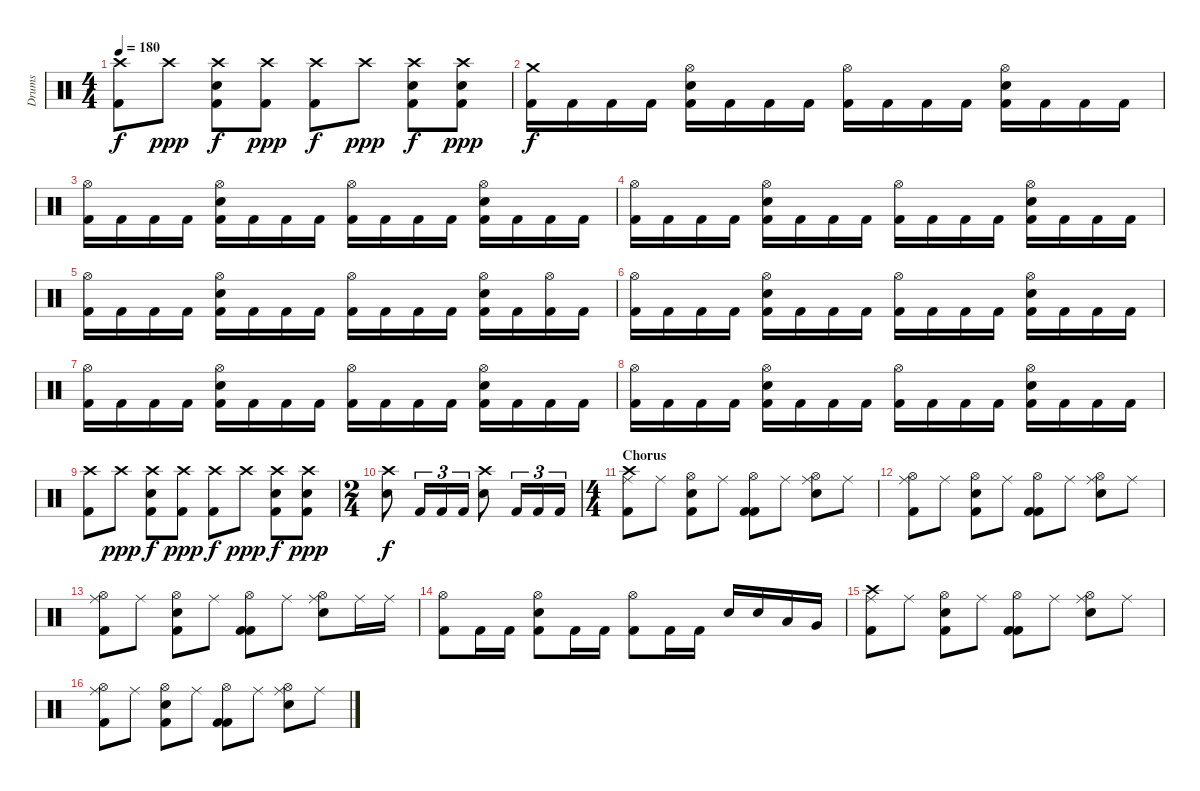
\track ("Drums" "Drums") {instrument percussion}
\staff {score}
\articulation defaults
\ts (4 4)
\tempo 180
\clef neutral
\ks c
("Crash high (hit)" "Kick (hit) 2").8{dy f} "Crash high (hit)".8{dy ppp} ("Crash high (hit)" "Kick (hit) 2" "Electric Snare (hit)").8{dy f} ("Crash high (hit)" "Kick (hit) 2").8{dy ppp} ("Crash high (hit)" "Kick (hit) 2").8{dy f} "Crash high (hit)".8{dy ppp} ("Crash high (hit)" "Kick (hit) 2" "Electric Snare (hit)").8{dy f} ("Crash high (hit)" "Kick (hit) 2" "Electric Snare (hit)").8{dy ppp} |
("Kick (hit) 2" "Crash medium (hit)").16{dy f} "Kick (hit) 2".16 "Kick (hit) 2".16 "Kick (hit) 2".16 ("Kick (hit) 2" "Hi-Hat (open)" "Electric Snare (hit)").16 "Kick (hit) 2".16 "Kick (hit) 2".16 "Kick (hit) 2".16 ("Kick (hit) 2" "Hi-Hat (open)").16 "Kick (hit) 2".16 "Kick (hit) 2".16 "Kick (hit) 2".16 ("Kick (hit) 2" "Hi-Hat (open)" "Electric Snare (hit)").16 "Kick (hit) 2".16 "Kick (hit) 2".16 "Kick (hit) 2".16 |
("Kick (hit) 2" "Hi-Hat (open)").16 "Kick (hit) 2".16 "Kick (hit) 2".16 "Kick (hit) 2".16 ("Kick (hit) 2" "Hi-Hat (open)" "Electric Snare (hit)").16 "Kick (hit) 2".16 "Kick (hit) 2".16 "Kick (hit) 2".16 ("Kick (hit) 2" "Hi-Hat (open)").16 "Kick (hit) 2".16 "Kick (hit) 2".16 "Kick (hit) 2".16 ("Kick (hit) 2" "Hi-Hat (open)" "Electric Snare (hit)").16 "Kick (hit) 2".16 "Kick (hit) 2".16 "Kick (hit) 2".16 |
("Kick (hit) 2" "Hi-Hat (open)").16 "Kick (hit) 2".16 "Kick (hit) 2".16 "Kick (hit) 2".16 ("Kick (hit) 2" "Hi-Hat (open)" "Electric Snare (hit)").16 "Kick (hit) 2".16 "Kick (hit) 2".16 "Kick (hit) 2".16 ("Kick (hit) 2" "Hi-Hat (open)").16 "Kick (hit) 2".16 "Kick (hit) 2".16 "Kick (hit) 2".16 ("Kick (hit) 2" "Hi-Hat (open)" "Electric Snare (hit)").16 "Kick (hit) 2".16 "Kick (hit) 2".16 "Kick (hit) 2".16 |
("Kick (hit) 2" "Hi-Hat (open)").16 "Kick (hit) 2".16 "Kick (hit) 2".16 "Kick (hit) 2".16 ("Kick (hit) 2" "Hi-Hat (open)" "Electric Snare (hit)").16 "Kick (hit) 2".16 "Kick (hit) 2".16 "Kick (hit) 2".16 ("Kick (hit) 2" "Hi-Hat (open)").16 "Kick (hit) 2".16 "Kick (hit) 2".16 "Kick (hit) 2".16 ("Kick (hit) 2" "Hi-Hat (open)" "Electric Snare (hit)").16 "Kick (hit) 2".16 ("Kick (hit) 2" "Hi-Hat (open)").16 "Kick (hit) 2".16 |
("Kick (hit) 2" "Hi-Hat (open)").16 "Kick (hit) 2".16 "Kick (hit) 2".16 "Kick (hit) 2".16 ("Kick (hit) 2" "Hi-Hat (open)" "Electric Snare (hit)").16 "Kick (hit) 2".16 "Kick (hit) 2".16 "Kick (hit) 2".16 ("Kick (hit) 2" "Hi-Hat (open)").16 "Kick (hit) 2".16 "Kick (hit) 2".16 "Kick (hit) 2".16 ("Kick (hit) 2" "Hi-Hat (open)" "Electric Snare (hit)").16 "Kick (hit) 2".16 "Kick (hit) 2".16 "Kick (hit) 2".16 |
("Kick (hit) 2" "Hi-Hat (open)").16 "Kick (hit) 2".16 "Kick (hit) 2".16 "Kick (hit) 2".16 ("Kick (hit) 2" "Hi-Hat (open)" "Electric Snare (hit)").16 "Kick (hit) 2".16 "Kick (hit) 2".16 "Kick (hit) 2".16 ("Kick (hit) 2" "Hi-Hat (open)").16 "Kick (hit) 2".16 "Kick (hit) 2".16 "Kick (hit) 2".16 ("Kick (hit) 2" "Hi-Hat (open)" "Electric Snare (hit)").16 "Kick (hit) 2".16 "Kick (hit) 2".16 "Kick (hit) 2".16 |
("Kick (hit) 2" "Hi-Hat (open)").16 "Kick (hit) 2".16 "Kick (hit) 2".16 "Kick (hit) 2".16 ("Kick (hit) 2" "Hi-Hat (open)" "Electric Snare (hit)").16 "Kick (hit) 2".16 "Kick (hit) 2".16 "Kick (hit) 2".16 ("Kick (hit) 2" "Hi-Hat (open)").16 "Kick (hit) 2".16 "Kick (hit) 2".16 "Kick (hit) 2".16 ("Kick (hit) 2" "Hi-Hat (open)" "Electric Snare (hit)").16 "Kick (hit) 2".16 "Kick (hit) 2".16 "Kick (hit) 2".16 |
("Crash high (hit)" "Kick (hit) 2").8 "Crash high (hit)".8{dy ppp} ("Crash high (hit)" "Kick (hit) 2" "Electric Snare (hit)").8{dy f} ("Crash high (hit)" "Kick (hit) 2").8{dy ppp} ("Crash high (hit)" "Kick (hit) 2").8{dy f} "Crash high (hit)".8{dy ppp} ("Crash high (hit)" "Kick (hit) 2" "Electric Snare (hit)").8{dy f} ("Crash high (hit)" "Kick (hit) 2" "Electric Snare (hit)").8{dy ppp} |
\ts (2 4)
("Crash high (hit)" "Electric Snare (hit)").8{dy f} "Kick (hit) 2".16{tu (3 2)} "Kick (hit) 2".16{tu (3 2)} "Kick (hit) 2".16{tu (3 2)} ("Crash high (hit)" "Electric Snare (hit)").8 "Kick (hit) 2".16{tu (3 2)} "Kick (hit) 2".16{tu (3 2)} "Kick (hit) 2".16{tu (3 2)} |
\ts (4 4)
\section ("" "Chorus")
("Ride (middle)" "Crash high (hit)" "Kick (hit) 2").8 "Ride (middle)".8 ("Kick (hit) 2" "Hi-Hat (open)" "Electric Snare (hit)").8 "Ride (middle)".8 ("Kick (hit) 2" "Hi-Hat (open)" "Kick (hit) 2").8 "Ride (middle)".8 ("Ride (middle)" "Hi-Hat (open)" "Electric Snare (hit)").8 "Ride (middle)".8 |
("Ride (middle)" "Hi-Hat (open)" "Kick (hit) 2").8 "Ride (middle)".8 ("Kick (hit) 2" "Hi-Hat (open)" "Electric Snare (hit)").8 "Ride (middle)".8 ("Kick (hit) 2" "Hi-Hat (open)" "Kick (hit) 2").8 "Ride (middle)".8 ("Ride (middle)" "Hi-Hat (open)" "Electric Snare (hit)").8 "Ride (middle)".8 |
("Ride (middle)" "Hi-Hat (open)" "Kick (hit) 2").8 "Ride (middle)".8 ("Kick (hit) 2" "Hi-Hat (open)" "Electric Snare (hit)").8 "Ride (middle)".8 ("Kick (hit) 2" "Hi-Hat (open)" "Kick (hit) 2").8 "Ride (middle)".8 ("Ride (middle)" "Hi-Hat (open)" "Electric Snare (hit)").8 "Ride (middle)".16 "Ride (middle)".16 |
("Kick (hit) 2" "Hi-Hat (open)").8 "Kick (hit) 2".16 "Kick (hit) 2".16 ("Kick (hit) 2" "Electric Snare (hit)" "Hi-Hat (open)").8 "Kick (hit) 2".16 "Kick (hit) 2".16 ("Kick (hit) 2" "Hi-Hat (open)").8 "Kick (hit) 2".16 "Kick (hit) 2".16 "Electric Snare (hit)".16 "Electric Snare (hit)".16 "Low Tom (hit)".16 "Very Low Tom (hit)".16 |
("Ride (middle)" "Crash high (hit)" "Kick (hit) 2").8 "Ride (middle)".8 ("Kick (hit) 2" "Hi-Hat (open)" "Electric Snare (hit)").8 "Ride (middle)".8 ("Kick (hit) 2" "Hi-Hat (open)" "Kick (hit) 2").8 "Ride (middle)".8 ("Ride (middle)" "Hi-Hat (open)" "Electric Snare (hit)").8 "Ride (middle)".8 |
("Ride (middle)" "Hi-Hat (open)" "Kick (hit) 2").8 "Ride (middle)".8 ("Kick (hit) 2" "Hi-Hat (open)" "Electric Snare (hit)").8 "Ride (middle)".8 ("Kick (hit) 2" "Hi-Hat (open)" "Kick (hit) 2").8 "Ride (middle)".8 ("Ride (middle)" "Hi-Hat (open)" "Electric Snare (hit)").8 "Ride (middle)".8
